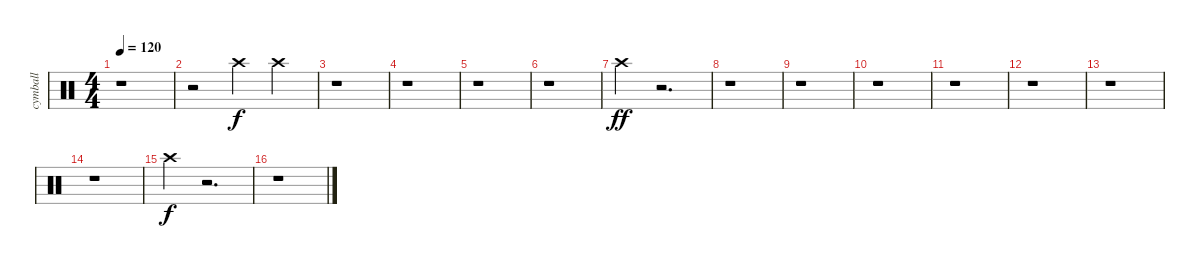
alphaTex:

\track ("cymball" "cymball") {instrument percussion}
\staff {score}
\articulation defaults
\ts (4 4)
\tempo 120
\clef neutral
\ks c
r.1{dy f} |
r.2 "Crash high (hit)".4 "Crash high (hit)".4 |
r.1 |
r.1 |
r.1 |
r.1 |
"Crash high (hit)".4{dy ff} r.2{d} |
r.1 |
r.1 |
r.1 |
r.1 |
r.1 |
r.1 |
r.1 |
"Crash high (hit)".4{dy f} r.2{d} |
r.1
